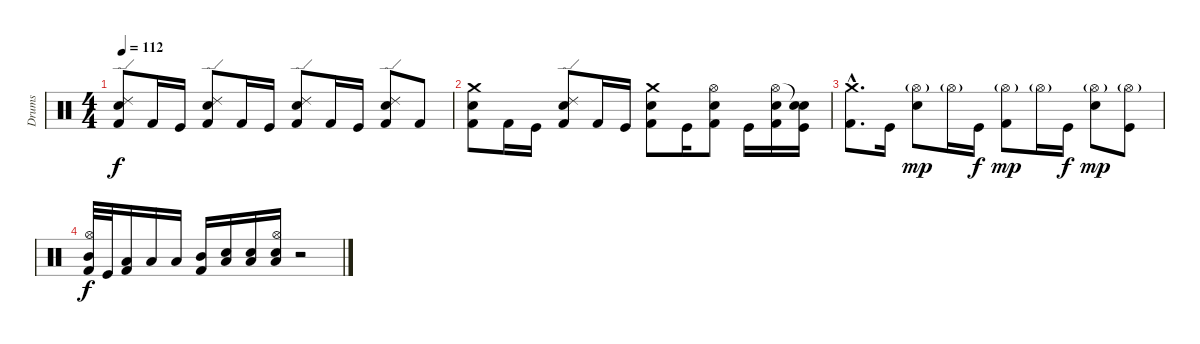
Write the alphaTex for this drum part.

\track ("Drums" "Drums") {instrument percussion}
\staff {score}
\articulation defaults
\ts (4 4)
\tempo 112
\clef neutral
\ks c
("Ride (edge) 2" "Snare (hit) 2" "Kick (hit) 2").8{dy f} "Kick (hit) 2".16 "Kick (hit)".16 ("Ride (edge) 2" "Snare (hit) 2" "Kick (hit) 2").8 "Kick (hit) 2".16 "Kick (hit)".16 ("Ride (edge) 2" "Snare (hit) 2" "Kick (hit) 2").8 "Kick (hit) 2".16 "Kick (hit)".16 ("Ride (edge) 2" "Snare (hit) 2" "Kick (hit) 2").8 "Kick (hit) 2".8 |
("Crash medium (hit)" "Snare (hit) 2" "Kick (hit) 2").8 "Kick (hit) 2".16 "Kick (hit)".16 ("Ride (edge) 2" "Snare (hit) 2" "Kick (hit) 2").8 "Kick (hit) 2".16 "Kick (hit)".16 ("Crash medium (hit)" "Snare (hit) 2" "Kick (hit) 2").8 "Kick (hit)".16 ("Hi-Hat (open)" "Snare (hit) 2" "Kick (hit) 2").8 "Kick (hit)".16 ("Hi-Hat (open)" "Snare (hit) 2" "Kick (hit) 2").16 ("Snare (hit)"{t} "Snare (hit) 2" "Kick (hit)").16 |
("Crash medium (hit)"{hac} "Kick (hit) 2"{hac}).8{d} "Kick (hit)".16 ("Hi-Hat (open)"{g} "Snare (hit) 2").8{dy mp} "Hi-Hat (open)"{g}.16 "Kick (hit)".16{dy f} ("Hi-Hat (open)"{g} "Kick (hit) 2").8{dy mp} "Hi-Hat (open)"{g}.16 "Kick (hit)".16{dy f} ("Hi-Hat (open)"{g} "Snare (hit) 2").8{dy mp} ("Hi-Hat (open)"{g} "Kick (hit)").8 |
("Hi-Hat (open)" "Mid Tom (hit)" "Kick (hit) 2").32{dy f} "Kick (hit)".32 ("Low Tom (hit)" "Kick (hit) 2").16 "Low Tom (hit)".16 "Low Tom (hit)".16 ("Mid Tom (hit)" "Kick (hit) 2").16 ("Low Tom (hit)" "Snare (hit) 2").16 ("Low Tom (hit)" "Snare (hit) 2").16 ("Hi-Hat (open)" "Low Tom (hit)" "Snare (hit) 2").16 r.2
